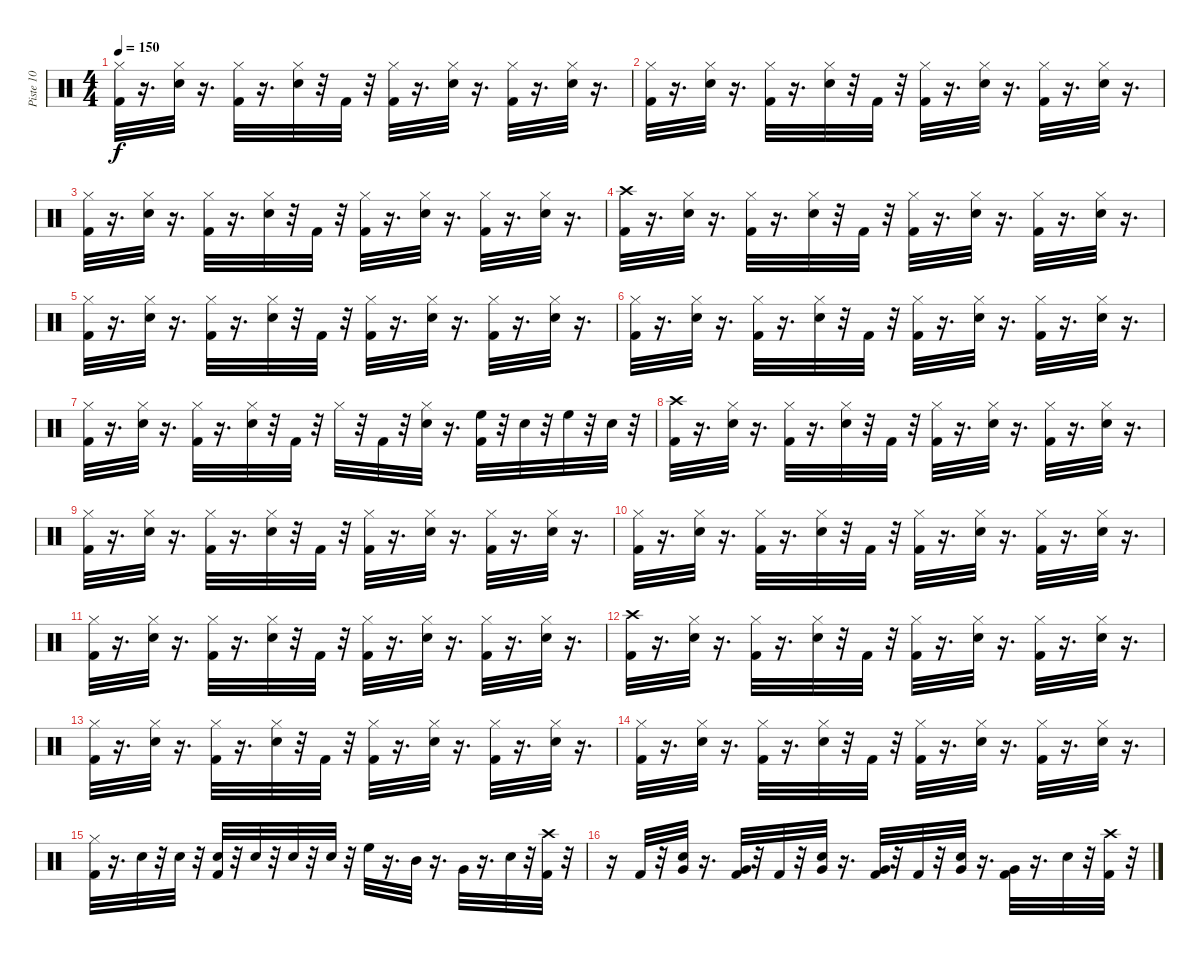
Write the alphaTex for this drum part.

\track ("Piste 10" "Piste 10") {instrument percussion}
\staff {score}
\articulation defaults
\ts (4 4)
\tempo 150
\clef neutral
\ks c
("Hi-Hat (closed)" "Kick (hit) 2").32{dy f} r.16{d} ("Hi-Hat (closed)" "Snare (hit) 2").32 r.16{d} ("Hi-Hat (closed)" "Kick (hit) 2").32 r.16{d} ("Hi-Hat (closed)" "Snare (hit) 2").32 r.32 "Kick (hit) 2".32 r.32 ("Hi-Hat (closed)" "Kick (hit) 2").32 r.16{d} ("Hi-Hat (closed)" "Snare (hit) 2").32 r.16{d} ("Hi-Hat (closed)" "Kick (hit) 2").32 r.16{d} ("Hi-Hat (closed)" "Snare (hit) 2").32 r.16{d} |
("Hi-Hat (closed)" "Kick (hit) 2").32 r.16{d} ("Hi-Hat (closed)" "Snare (hit) 2").32 r.16{d} ("Hi-Hat (closed)" "Kick (hit) 2").32 r.16{d} ("Hi-Hat (closed)" "Snare (hit) 2").32 r.32 "Kick (hit) 2".32 r.32 ("Hi-Hat (closed)" "Kick (hit) 2").32 r.16{d} ("Hi-Hat (closed)" "Snare (hit) 2").32 r.16{d} ("Hi-Hat (closed)" "Kick (hit) 2").32 r.16{d} ("Hi-Hat (closed)" "Snare (hit) 2").32 r.16{d} |
("Hi-Hat (closed)" "Kick (hit) 2").32 r.16{d} ("Hi-Hat (closed)" "Snare (hit) 2").32 r.16{d} ("Hi-Hat (closed)" "Kick (hit) 2").32 r.16{d} ("Hi-Hat (closed)" "Snare (hit) 2").32 r.32 "Kick (hit) 2".32 r.32 ("Hi-Hat (closed)" "Kick (hit) 2").32 r.16{d} ("Hi-Hat (closed)" "Snare (hit) 2").32 r.16{d} ("Hi-Hat (closed)" "Kick (hit) 2").32 r.16{d} ("Hi-Hat (closed)" "Snare (hit) 2").32 r.16{d} |
("Crash high (hit)" "Kick (hit) 2").32 r.16{d} ("Hi-Hat (closed)" "Snare (hit) 2").32 r.16{d} ("Hi-Hat (closed)" "Kick (hit) 2").32 r.16{d} ("Hi-Hat (closed)" "Snare (hit) 2").32 r.32 "Kick (hit) 2".32 r.32 ("Hi-Hat (closed)" "Kick (hit) 2").32 r.16{d} ("Hi-Hat (closed)" "Snare (hit) 2").32 r.16{d} ("Hi-Hat (closed)" "Kick (hit) 2").32 r.16{d} ("Hi-Hat (closed)" "Snare (hit) 2").32 r.16{d} |
("Hi-Hat (closed)" "Kick (hit) 2").32 r.16{d} ("Hi-Hat (closed)" "Snare (hit) 2").32 r.16{d} ("Hi-Hat (closed)" "Kick (hit) 2").32 r.16{d} ("Hi-Hat (closed)" "Snare (hit) 2").32 r.32 "Kick (hit) 2".32 r.32 ("Hi-Hat (closed)" "Kick (hit) 2").32 r.16{d} ("Hi-Hat (closed)" "Snare (hit) 2").32 r.16{d} ("Hi-Hat (closed)" "Kick (hit) 2").32 r.16{d} ("Hi-Hat (closed)" "Snare (hit) 2").32 r.16{d} |
("Hi-Hat (closed)" "Kick (hit) 2").32 r.16{d} ("Hi-Hat (closed)" "Snare (hit) 2").32 r.16{d} ("Hi-Hat (closed)" "Kick (hit) 2").32 r.16{d} ("Hi-Hat (closed)" "Snare (hit) 2").32 r.32 "Kick (hit) 2".32 r.32 ("Hi-Hat (closed)" "Kick (hit) 2").32 r.16{d} ("Hi-Hat (closed)" "Snare (hit) 2").32 r.16{d} ("Hi-Hat (closed)" "Kick (hit) 2").32 r.16{d} ("Hi-Hat (closed)" "Snare (hit) 2").32 r.16{d} |
("Hi-Hat (closed)" "Kick (hit) 2").32 r.16{d} ("Hi-Hat (closed)" "Snare (hit) 2").32 r.16{d} ("Hi-Hat (closed)" "Kick (hit) 2").32 r.16{d} ("Hi-Hat (closed)" "Snare (hit) 2").32 r.32 "Kick (hit) 2".32 r.32 "Hi-Hat (closed)".32 r.32 "Kick (hit) 2".32 r.32 ("Hi-Hat (closed)" "Snare (hit) 2").32 r.16{d} ("Kick (hit) 2" "High Floor Tom (hit)").32 r.32 "Snare (hit) 2".32 r.32 "High Floor Tom (hit)".32 r.32 "Snare (hit) 2".32 r.32 |
("Crash high (hit)" "Kick (hit) 2").32 r.16{d} ("Hi-Hat (closed)" "Snare (hit) 2").32 r.16{d} ("Hi-Hat (closed)" "Kick (hit) 2").32 r.16{d} ("Hi-Hat (closed)" "Snare (hit) 2").32 r.32 "Kick (hit) 2".32 r.32 ("Hi-Hat (closed)" "Kick (hit) 2").32 r.16{d} ("Hi-Hat (closed)" "Snare (hit) 2").32 r.16{d} ("Hi-Hat (closed)" "Kick (hit) 2").32 r.16{d} ("Hi-Hat (closed)" "Snare (hit) 2").32 r.16{d} |
("Hi-Hat (closed)" "Kick (hit) 2").32 r.16{d} ("Hi-Hat (closed)" "Snare (hit) 2").32 r.16{d} ("Hi-Hat (closed)" "Kick (hit) 2").32 r.16{d} ("Hi-Hat (closed)" "Snare (hit) 2").32 r.32 "Kick (hit) 2".32 r.32 ("Hi-Hat (closed)" "Kick (hit) 2").32 r.16{d} ("Hi-Hat (closed)" "Snare (hit) 2").32 r.16{d} ("Hi-Hat (closed)" "Kick (hit) 2").32 r.16{d} ("Hi-Hat (closed)" "Snare (hit) 2").32 r.16{d} |
("Hi-Hat (closed)" "Kick (hit) 2").32 r.16{d} ("Hi-Hat (closed)" "Snare (hit) 2").32 r.16{d} ("Hi-Hat (closed)" "Kick (hit) 2").32 r.16{d} ("Hi-Hat (closed)" "Snare (hit) 2").32 r.32 "Kick (hit) 2".32 r.32 ("Hi-Hat (closed)" "Kick (hit) 2").32 r.16{d} ("Hi-Hat (closed)" "Snare (hit) 2").32 r.16{d} ("Hi-Hat (closed)" "Kick (hit) 2").32 r.16{d} ("Hi-Hat (closed)" "Snare (hit) 2").32 r.16{d} |
("Hi-Hat (closed)" "Kick (hit) 2").32 r.16{d} ("Hi-Hat (closed)" "Snare (hit) 2").32 r.16{d} ("Hi-Hat (closed)" "Kick (hit) 2").32 r.16{d} ("Hi-Hat (closed)" "Snare (hit) 2").32 r.32 "Kick (hit) 2".32 r.32 ("Hi-Hat (closed)" "Kick (hit) 2").32 r.16{d} ("Hi-Hat (closed)" "Snare (hit) 2").32 r.16{d} ("Hi-Hat (closed)" "Kick (hit) 2").32 r.16{d} ("Hi-Hat (closed)" "Snare (hit) 2").32 r.16{d} |
("Crash high (hit)" "Kick (hit) 2").32 r.16{d} ("Hi-Hat (closed)" "Snare (hit) 2").32 r.16{d} ("Hi-Hat (closed)" "Kick (hit) 2").32 r.16{d} ("Hi-Hat (closed)" "Snare (hit) 2").32 r.32 "Kick (hit) 2".32 r.32 ("Hi-Hat (closed)" "Kick (hit) 2").32 r.16{d} ("Hi-Hat (closed)" "Snare (hit) 2").32 r.16{d} ("Hi-Hat (closed)" "Kick (hit) 2").32 r.16{d} ("Hi-Hat (closed)" "Snare (hit) 2").32 r.16{d} |
("Hi-Hat (closed)" "Kick (hit) 2").32 r.16{d} ("Hi-Hat (closed)" "Snare (hit) 2").32 r.16{d} ("Hi-Hat (closed)" "Kick (hit) 2").32 r.16{d} ("Hi-Hat (closed)" "Snare (hit) 2").32 r.32 "Kick (hit) 2".32 r.32 ("Hi-Hat (closed)" "Kick (hit) 2").32 r.16{d} ("Hi-Hat (closed)" "Snare (hit) 2").32 r.16{d} ("Hi-Hat (closed)" "Kick (hit) 2").32 r.16{d} ("Hi-Hat (closed)" "Snare (hit) 2").32 r.16{d} |
("Hi-Hat (closed)" "Kick (hit) 2").32 r.16{d} ("Hi-Hat (closed)" "Snare (hit) 2").32 r.16{d} ("Hi-Hat (closed)" "Kick (hit) 2").32 r.16{d} ("Hi-Hat (closed)" "Snare (hit) 2").32 r.32 "Kick (hit) 2".32 r.32 ("Hi-Hat (closed)" "Kick (hit) 2").32 r.16{d} ("Hi-Hat (closed)" "Snare (hit) 2").32 r.16{d} ("Hi-Hat (closed)" "Kick (hit) 2").32 r.16{d} ("Hi-Hat (closed)" "Snare (hit) 2").32 r.16{d} |
("Hi-Hat (closed)" "Kick (hit) 2").32 r.16{d} "Snare (hit) 2".32 r.32 "Snare (hit) 2".32 r.32 ("Kick (hit) 2" "Snare (hit) 2").32 r.32 "Snare (hit) 2".32 r.32 "Snare (hit) 2".32 r.32 "Snare (hit) 2".32 r.32 "High Floor Tom (hit)".32 r.16{d} "Mid Tom (hit)".32 r.16{d} "Very Low Tom (hit)".32 r.16{d} "Snare (hit) 2".32 r.32 ("Kick (hit) 2" "Crash high (hit)").32 r.32 |
r.16 "Kick (hit) 2".32 r.32 ("Very Low Tom (hit)" "Snare (hit) 2").32 r.16{d} ("Kick (hit) 2" "Very Low Tom (hit)").32 r.32 "Kick (hit) 2".32 r.32 ("Very Low Tom (hit)" "Snare (hit) 2").32 r.16{d} ("Kick (hit) 2" "Very Low Tom (hit)").32 r.32 "Kick (hit) 2".32 r.32 ("Very Low Tom (hit)" "Snare (hit) 2").32 r.16{d} ("Kick (hit) 2" "Very Low Tom (hit)").32 r.16{d} "Snare (hit) 2".32 r.32 ("Kick (hit) 2" "Crash high (hit)").32 r.32
